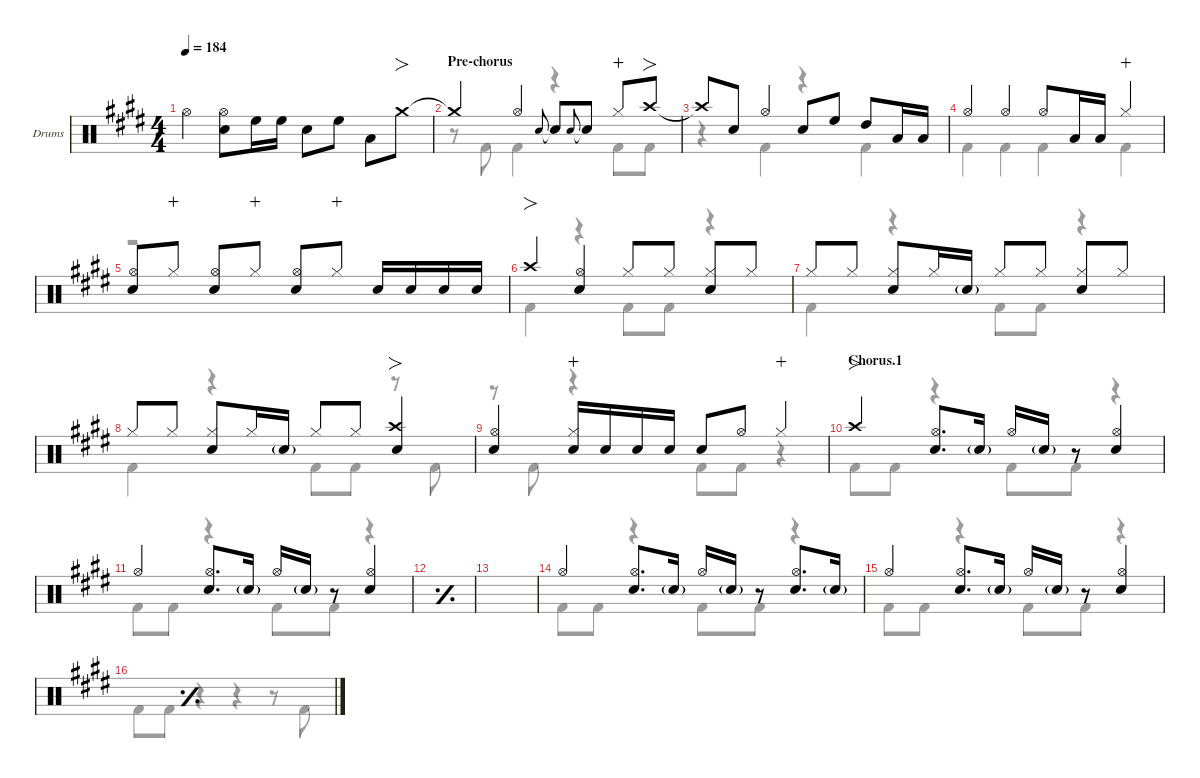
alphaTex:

\defaultSystemsLayout 4
\hideDynamics
\bracketExtendMode nobrackets
\firstSystemTrackNameOrientation horizontal
\track ("Drums" "Drums") {defaultSystemsLayout 4 instrument percussion}
\staff {score}
\articulation defaults
\voice
\ts (4 4)
\tempo 184
\clef neutral
\ks e "Hi-Hat (open)"{acc forcenatural}.4{dy f}
("Hi-Hat (open)"{acc forcenatural} "Snare (hit) 2"{acc forcenatural}).8 "High Floor Tom (hit)"{acc forcenatural}.16 "High Floor Tom (hit)"{acc forcenatural}.16 "Snare (hit) 2"{acc forcenatural}.8 "High Floor Tom (hit)"{acc forcenatural}.8 "Low Tom (hit)"{acc forcenatural}.8 "Crash medium (hit)"{acc forcenatural}.8{fo} |
\section ("" "Pre-chorus")
"Crash medium (hit)"{t acc forcenatural}.4 "Hi-Hat (open)"{acc forcenatural}.4 "Snare (hit) 2"{acc forcenatural}.8{gr onbeat} "Snare (hit) 2"{t acc forcenatural}.8 "Snare (hit) 2"{acc forcenatural}.8{gr onbeat} "Snare (hit) 2"{t acc forcenatural}.8 "Hi-Hat (closed)"{acc forcenatural}.8{dy mp wahc} "Crash high (hit)"{acc forcenatural}.8{fo dy f} |
"Crash high (hit)"{t acc forcenatural}.8 "Snare (hit) 2"{acc forcenatural}.8 "Hi-Hat (open)"{acc forcenatural}.4 "Snare (hit) 2"{acc forcenatural}.8 "High Floor Tom (hit)"{acc forcenatural}.8{beam split} "High Tom (hit)"{acc forcenatural}.8 "Low Tom (hit)"{acc forcenatural}.16 "Low Tom (hit)"{acc forcenatural}.16 |
"Hi-Hat (open)"{acc forcenatural}.4 "Hi-Hat (open)"{acc forcenatural}.4 "Hi-Hat (open)"{acc forcenatural}.8 "Low Tom (hit)"{acc forcenatural}.16 "Low Tom (hit)"{acc forcenatural}.16 "Hi-Hat (closed)"{acc forcenatural}.4{dy mp wahc} |
("Hi-Hat (open)"{acc forcenatural} "Snare (hit) 2"{acc forcenatural}).8{dy f} "Hi-Hat (closed)"{acc forcenatural}.8{dy mp wahc} ("Hi-Hat (open)"{acc forcenatural} "Snare (hit) 2"{acc forcenatural}).8{dy f} "Hi-Hat (closed)"{acc forcenatural}.8{dy mp wahc} ("Hi-Hat (open)"{acc forcenatural} "Snare (hit) 2"{acc forcenatural}).8{dy f} "Hi-Hat (closed)"{acc forcenatural}.8{dy mp wahc beam split} "Snare (hit) 2"{acc forcenatural}.16{dy f} "Snare (hit) 2"{acc forcenatural}.16{dy mf} "Snare (hit) 2"{acc forcenatural}.16{dy f} "Snare (hit) 2"{acc forcenatural}.16{dy mf} |
"Crash high (hit)"{acc forcenatural}.4{fo dy f} ("Hi-Hat (open)"{acc forcenatural} "Snare (hit) 2"{acc forcenatural}).4 "Hi-Hat (closed)"{acc forcenatural}.8 "Hi-Hat (closed)"{acc forcenatural}.8{dy mf} ("Hi-Hat (closed)"{acc forcenatural} "Snare (hit) 2"{acc forcenatural}).8{dy f} "Hi-Hat (closed)"{acc forcenatural}.8{dy mf} |
"Hi-Hat (closed)"{acc forcenatural}.8{dy f} "Hi-Hat (closed)"{acc forcenatural}.8{dy mf beam split} ("Hi-Hat (closed)"{acc forcenatural} "Snare (hit) 2"{acc forcenatural}).8{dy f} "Hi-Hat (closed)"{acc forcenatural}.16{dy mf} "Snare (hit) 2"{g acc forcenatural}.16 "Hi-Hat (closed)"{acc forcenatural}.8{dy f} "Hi-Hat (closed)"{acc forcenatural}.8{dy mf} ("Hi-Hat (closed)"{acc forcenatural} "Snare (hit) 2"{acc forcenatural}).8{dy f} "Hi-Hat (closed)"{acc forcenatural}.8{dy mf} |
"Hi-Hat (closed)"{acc forcenatural}.8{dy f} "Hi-Hat (closed)"{acc forcenatural}.8{dy mf beam split} ("Hi-Hat (closed)"{acc forcenatural} "Snare (hit) 2"{acc forcenatural}).8{dy f} "Hi-Hat (closed)"{acc forcenatural}.16{dy mf} "Snare (hit) 2"{g acc forcenatural}.16 "Hi-Hat (closed)"{acc forcenatural}.8{dy f} "Hi-Hat (closed)"{acc forcenatural}.8{dy mf beam split} ("Crash high (hit)"{acc forcenatural} "Snare (hit) 2"{acc forcenatural}).4{fo dy f} |
("Hi-Hat (open)"{acc forcenatural} "Snare (hit) 2"{acc forcenatural}).4 ("Snare (hit) 2"{acc forcenatural} "Hi-Hat (closed)"{acc forcenatural}).16{wahc} "Snare (hit) 2"{acc forcenatural}.16{dy mf} "Snare (hit) 2"{acc forcenatural}.16{dy f} "Snare (hit) 2"{acc forcenatural}.16{dy mf} "Snare (hit) 2"{acc forcenatural}.8 "Hi-Hat (open)"{acc forcenatural}.8{dy f} "Hi-Hat (closed)"{acc forcenatural}.4{dy mp wahc} |
\section ("" "Chorus.1")
"Crash high (hit)"{acc forcenatural}.4{fo dy f} ("Hi-Hat (open)"{acc forcenatural} "Snare (hit) 2"{acc forcenatural}).8{d} "Snare (hit) 2"{g acc forcenatural}.16{dy mf} "Hi-Hat (open)"{acc forcenatural}.16{dy f} "Snare (hit) 2"{g acc forcenatural}.16{dy mf beam split} r.8 ("Hi-Hat (open)"{acc forcenatural} "Snare (hit) 2"{acc forcenatural}).4{dy f} |
"Hi-Hat (open)"{acc forcenatural}.4 ("Hi-Hat (open)"{acc forcenatural} "Snare (hit) 2"{acc forcenatural}).8{d} "Snare (hit) 2"{g acc forcenatural}.16{dy mf} "Hi-Hat (open)"{acc forcenatural}.16{dy f} "Snare (hit) 2"{g acc forcenatural}.16{dy mf beam split} r.8 ("Hi-Hat (open)"{acc forcenatural} "Snare (hit) 2"{acc forcenatural}).4{dy f} |
\simile simple
|
|
\simile none "Hi-Hat (open)"{acc forcenatural}.4
("Hi-Hat (open)"{acc forcenatural} "Snare (hit) 2"{acc forcenatural}).8{d} "Snare (hit) 2"{g acc forcenatural}.16{dy mf} "Hi-Hat (open)"{acc forcenatural}.16{dy f} "Snare (hit) 2"{g acc forcenatural}.16{dy mf beam split} r.8 ("Hi-Hat (open)"{acc forcenatural} "Snare (hit) 2"{acc forcenatural}).8{d dy f} "Snare (hit) 2"{g acc forcenatural}.16{dy mf} |
"Hi-Hat (open)"{acc forcenatural}.4{dy f} ("Hi-Hat (open)"{acc forcenatural} "Snare (hit) 2"{acc forcenatural}).8{d} "Snare (hit) 2"{g acc forcenatural}.16{dy mf} "Hi-Hat (open)"{acc forcenatural}.16{dy f} "Snare (hit) 2"{g acc forcenatural}.16{dy mf beam split} r.8 ("Hi-Hat (open)"{acc forcenatural} "Snare (hit) 2"{acc forcenatural}).4{dy f} |
\simile simple
\voice
\clef neutral
\ottava regular
\simile none
\ks e "Kick (hit) 2"{acc forcenatural}.8{dy f} "Kick (hit) 2"{acc forcenatural}.8
r.4 r.4 r.8 "Kick (hit) 2"{acc forcenatural}.8 |
r.8 "Kick (hit) 2"{acc forcenatural}.8 "Kick (hit) 2"{acc forcenatural}.4 r.4 "Kick (hit) 2"{acc forcenatural}.8 "Kick (hit) 2"{acc forcenatural}.8 |
r.4 "Kick (hit) 2"{acc forcenatural}.4 r.4 "Kick (hit) 2"{acc forcenatural}.4 |
"Kick (hit) 2"{acc forcenatural}.4 "Kick (hit) 2"{acc forcenatural}.4 "Kick (hit) 2"{acc forcenatural}.4 "Kick (hit) 2"{acc forcenatural}.4 |
r.1 |
"Kick (hit) 2"{acc forcenatural}.4 r.4 "Kick (hit) 2"{acc forcenatural}.8 "Kick (hit) 2"{acc forcenatural}.8 r.4 |
"Kick (hit) 2"{acc forcenatural}.4 r.4 "Kick (hit) 2"{acc forcenatural}.8 "Kick (hit) 2"{acc forcenatural}.8 r.4 |
"Kick (hit) 2"{acc forcenatural}.4 r.4 "Kick (hit) 2"{acc forcenatural}.8 "Kick (hit) 2"{acc forcenatural}.8 r.8 "Kick (hit) 2"{acc forcenatural}.8 |
r.8 "Kick (hit) 2"{acc forcenatural}.8 r.4 "Kick (hit) 2"{acc forcenatural}.8 "Kick (hit) 2"{acc forcenatural}.8 r.4 |
"Kick (hit) 2"{acc forcenatural}.8 "Kick (hit) 2"{acc forcenatural}.8 r.4 "Kick (hit) 2"{acc forcenatural}.8 "Kick (hit) 2"{acc forcenatural}.8 r.4 |
"Kick (hit) 2"{acc forcenatural}.8 "Kick (hit) 2"{acc forcenatural}.8 r.4 "Kick (hit) 2"{acc forcenatural}.8 "Kick (hit) 2"{acc forcenatural}.8 r.4 |
\simile simple
|
|
\simile none "Kick (hit) 2"{acc forcenatural}.8 "Kick (hit) 2"{acc forcenatural}.8
r.4 "Kick (hit) 2"{acc forcenatural}.8 "Kick (hit) 2"{acc forcenatural}.8 r.4 |
"Kick (hit) 2"{acc forcenatural}.8 "Kick (hit) 2"{acc forcenatural}.8 r.4 "Kick (hit) 2"{acc forcenatural}.8 "Kick (hit) 2"{acc forcenatural}.8 r.4 |
\simile simple
